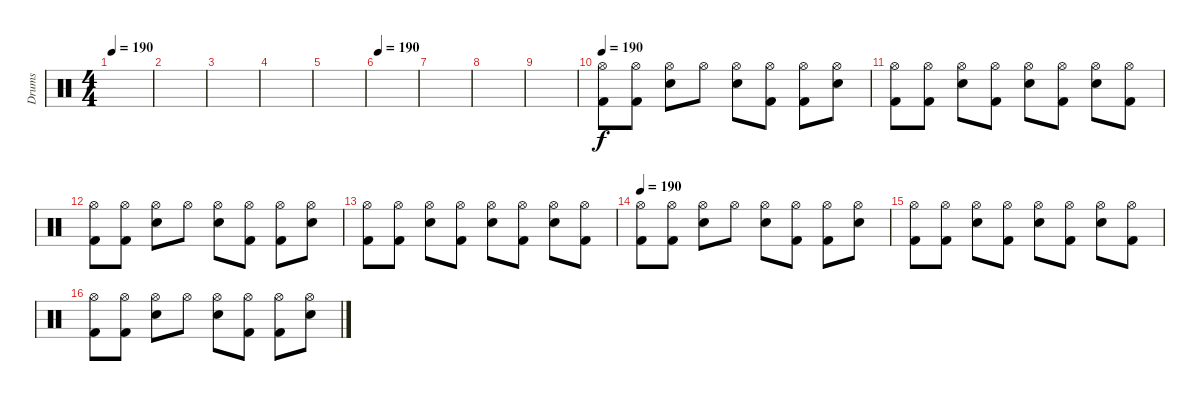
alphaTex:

\track ("Drums" "Drums") {instrument percussion}
\staff {score}
\articulation defaults
\ts (4 4)
\tempo 190
\clef neutral
\ks c
|
|
|
|
|
\tempo 190
|
|
|
|
\tempo 190
("Kick (hit) 2" "Hi-Hat (open)").8 ("Kick (hit) 2" "Hi-Hat (open)").8 ("Snare (hit) 2" "Hi-Hat (open)").8 "Hi-Hat (open)".8 ("Snare (hit) 2" "Hi-Hat (open)").8 ("Kick (hit) 2" "Hi-Hat (open)").8 ("Kick (hit) 2" "Hi-Hat (open)").8 ("Snare (hit) 2" "Hi-Hat (open)").8 |
("Kick (hit) 2" "Hi-Hat (open)").8 ("Kick (hit) 2" "Hi-Hat (open)").8 ("Snare (hit) 2" "Hi-Hat (open)").8 ("Kick (hit) 2" "Hi-Hat (open)").8 ("Snare (hit) 2" "Hi-Hat (open)").8 ("Kick (hit) 2" "Hi-Hat (open)").8 ("Snare (hit) 2" "Hi-Hat (open)").8 ("Kick (hit) 2" "Hi-Hat (open)").8 |
("Kick (hit) 2" "Hi-Hat (open)").8 ("Kick (hit) 2" "Hi-Hat (open)").8 ("Snare (hit) 2" "Hi-Hat (open)").8 "Hi-Hat (open)".8 ("Snare (hit) 2" "Hi-Hat (open)").8 ("Kick (hit) 2" "Hi-Hat (open)").8 ("Kick (hit) 2" "Hi-Hat (open)").8 ("Snare (hit) 2" "Hi-Hat (open)").8 |
("Kick (hit) 2" "Hi-Hat (open)").8 ("Kick (hit) 2" "Hi-Hat (open)").8 ("Snare (hit) 2" "Hi-Hat (open)").8 ("Kick (hit) 2" "Hi-Hat (open)").8 ("Snare (hit) 2" "Hi-Hat (open)").8 ("Kick (hit) 2" "Hi-Hat (open)").8 ("Snare (hit) 2" "Hi-Hat (open)").8 ("Kick (hit) 2" "Hi-Hat (open)").8 |
\tempo 190
("Kick (hit) 2" "Hi-Hat (open)").8 ("Kick (hit) 2" "Hi-Hat (open)").8 ("Snare (hit) 2" "Hi-Hat (open)").8 "Hi-Hat (open)".8 ("Snare (hit) 2" "Hi-Hat (open)").8 ("Kick (hit) 2" "Hi-Hat (open)").8 ("Kick (hit) 2" "Hi-Hat (open)").8 ("Snare (hit) 2" "Hi-Hat (open)").8 |
("Kick (hit) 2" "Hi-Hat (open)").8 ("Kick (hit) 2" "Hi-Hat (open)").8 ("Snare (hit) 2" "Hi-Hat (open)").8 ("Kick (hit) 2" "Hi-Hat (open)").8 ("Snare (hit) 2" "Hi-Hat (open)").8 ("Kick (hit) 2" "Hi-Hat (open)").8 ("Snare (hit) 2" "Hi-Hat (open)").8 ("Kick (hit) 2" "Hi-Hat (open)").8 |
("Kick (hit) 2" "Hi-Hat (open)").8 ("Kick (hit) 2" "Hi-Hat (open)").8 ("Snare (hit) 2" "Hi-Hat (open)").8 "Hi-Hat (open)".8 ("Snare (hit) 2" "Hi-Hat (open)").8 ("Kick (hit) 2" "Hi-Hat (open)").8 ("Kick (hit) 2" "Hi-Hat (open)").8 ("Snare (hit) 2" "Hi-Hat (open)").8
